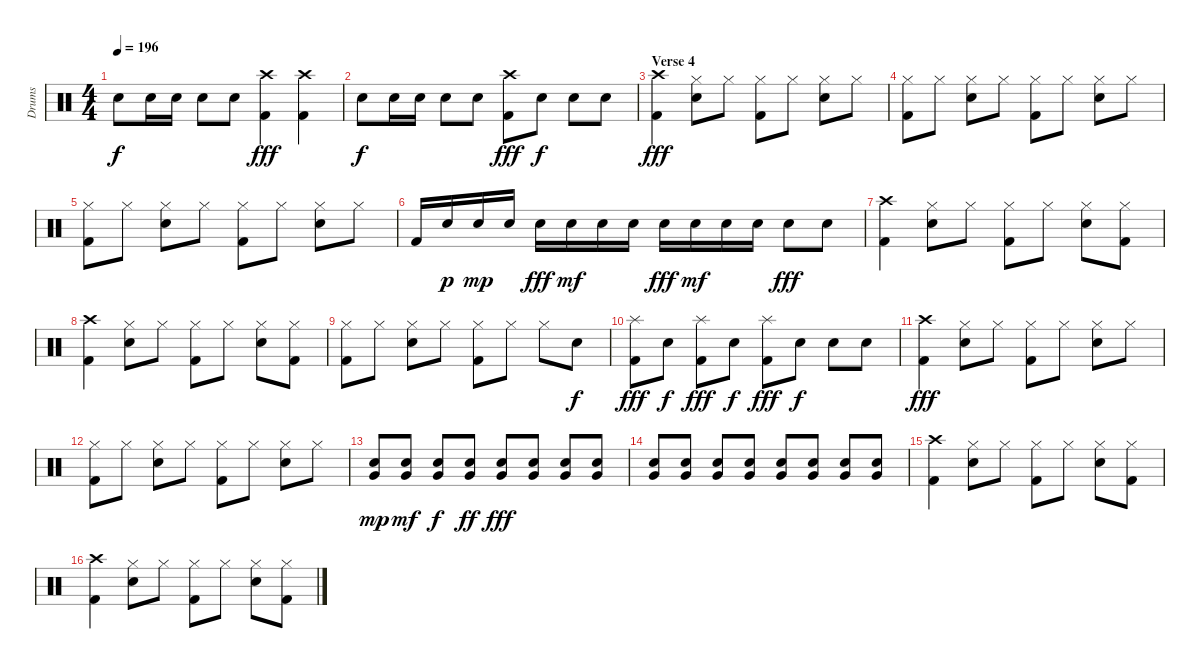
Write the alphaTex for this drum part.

\track ("Drums" "Drums") {instrument percussion}
\staff {score}
\articulation defaults
\ts (4 4)
\tempo 196
\clef neutral
\ks c "Snare (hit) 2".8{dy f} "Snare (hit) 2".16 "Snare (hit) 2".16 "Snare (hit) 2".8 "Snare (hit) 2".8
("Crash high (hit)" "Kick (hit) 2").4{dy fff} ("Crash high (hit)" "Kick (hit) 2").4 |
"Snare (hit) 2".8{dy f} "Snare (hit) 2".16 "Snare (hit) 2".16 "Snare (hit) 2".8 "Snare (hit) 2".8 ("Crash high (hit)" "Kick (hit) 2").8{dy fff} "Snare (hit) 2".8{dy f} "Snare (hit) 2".8 "Snare (hit) 2".8 |
\section ("" "Verse 4")
("Crash high (hit)" "Kick (hit) 2").4{dy fff} ("Hi-Hat (closed)" "Snare (hit) 2").8 "Hi-Hat (closed)".8 ("Hi-Hat (closed)" "Kick (hit) 2").8 "Hi-Hat (closed)".8 ("Hi-Hat (closed)" "Snare (hit) 2").8 "Hi-Hat (closed)".8 |
("Hi-Hat (closed)" "Kick (hit) 2").8 "Hi-Hat (closed)".8 ("Hi-Hat (closed)" "Snare (hit) 2").8 "Hi-Hat (closed)".8 ("Hi-Hat (closed)" "Kick (hit) 2").8 "Hi-Hat (closed)".8 ("Hi-Hat (closed)" "Snare (hit) 2").8 "Hi-Hat (closed)".8 |
("Hi-Hat (closed)" "Kick (hit) 2").8 "Hi-Hat (closed)".8 ("Hi-Hat (closed)" "Snare (hit) 2").8 "Hi-Hat (closed)".8 ("Hi-Hat (closed)" "Kick (hit) 2").8 "Hi-Hat (closed)".8 ("Hi-Hat (closed)" "Snare (hit) 2").8 "Hi-Hat (closed)".8 |
"Kick (hit) 2".16 "Snare (hit) 2".16{dy p} "Snare (hit) 2".16{dy mp} "Snare (hit) 2".16 "Snare (hit) 2".16{dy fff} "Snare (hit) 2".16{dy mf} "Snare (hit) 2".16 "Snare (hit) 2".16 "Snare (hit) 2".16{dy fff} "Snare (hit) 2".16{dy mf} "Snare (hit) 2".16 "Snare (hit) 2".16 "Snare (hit) 2".8{dy fff} "Snare (hit) 2".8 |
("Crash high (hit)" "Kick (hit) 2").4 ("Hi-Hat (closed)" "Snare (hit) 2").8 "Hi-Hat (closed)".8 ("Hi-Hat (closed)" "Kick (hit) 2").8 "Hi-Hat (closed)".8 ("Hi-Hat (closed)" "Snare (hit) 2").8 ("Hi-Hat (closed)" "Kick (hit) 2").8 |
("Crash high (hit)" "Kick (hit) 2").4 ("Hi-Hat (closed)" "Snare (hit) 2").8 "Hi-Hat (closed)".8 ("Hi-Hat (closed)" "Kick (hit) 2").8 "Hi-Hat (closed)".8 ("Hi-Hat (closed)" "Snare (hit) 2").8 ("Hi-Hat (closed)" "Kick (hit) 2").8 |
("Hi-Hat (closed)" "Kick (hit) 2").8 "Hi-Hat (closed)".8 ("Hi-Hat (closed)" "Snare (hit) 2").8 "Hi-Hat (closed)".8 ("Hi-Hat (closed)" "Kick (hit) 2").8 "Hi-Hat (closed)".8 "Hi-Hat (closed)".8 "Snare (hit) 2".8{dy f} |
("Splash (hit)" "Kick (hit) 2").8{dy fff} "Snare (hit) 2".8{dy f} ("Splash (hit)" "Kick (hit) 2").8{dy fff} "Snare (hit) 2".8{dy f} ("Splash (hit)" "Kick (hit) 2").8{dy fff} "Snare (hit) 2".8{dy f} "Snare (hit) 2".8 "Snare (hit) 2".8 |
("Crash high (hit)" "Kick (hit) 2").4{dy fff} ("Hi-Hat (closed)" "Snare (hit) 2").8 "Hi-Hat (closed)".8 ("Hi-Hat (closed)" "Kick (hit) 2").8 "Hi-Hat (closed)".8 ("Hi-Hat (closed)" "Snare (hit) 2").8 "Hi-Hat (closed)".8 |
("Hi-Hat (closed)" "Kick (hit) 2").8 "Hi-Hat (closed)".8 ("Hi-Hat (closed)" "Snare (hit) 2").8 "Hi-Hat (closed)".8 ("Hi-Hat (closed)" "Kick (hit) 2").8 "Hi-Hat (closed)".8 ("Hi-Hat (closed)" "Snare (hit) 2").8 "Hi-Hat (closed)".8 |
("Very Low Tom (hit)" "Snare (hit) 2").8{dy mp} ("Very Low Tom (hit)" "Snare (hit) 2").8{dy mf} ("Very Low Tom (hit)" "Snare (hit) 2").8{dy f} ("Very Low Tom (hit)" "Snare (hit) 2").8{dy ff} ("Very Low Tom (hit)" "Snare (hit) 2").8{dy fff} ("Very Low Tom (hit)" "Snare (hit) 2").8 ("Very Low Tom (hit)" "Snare (hit) 2").8 ("Very Low Tom (hit)" "Snare (hit) 2").8 |
("Very Low Tom (hit)" "Snare (hit) 2").8 ("Very Low Tom (hit)" "Snare (hit) 2").8 ("Very Low Tom (hit)" "Snare (hit) 2").8 ("Very Low Tom (hit)" "Snare (hit) 2").8 ("Very Low Tom (hit)" "Snare (hit) 2").8 ("Very Low Tom (hit)" "Snare (hit) 2").8 ("Very Low Tom (hit)" "Snare (hit) 2").8 ("Very Low Tom (hit)" "Snare (hit) 2").8 |
("Crash high (hit)" "Kick (hit) 2").4 ("Hi-Hat (closed)" "Snare (hit) 2").8 "Hi-Hat (closed)".8 ("Hi-Hat (closed)" "Kick (hit) 2").8 "Hi-Hat (closed)".8 ("Hi-Hat (closed)" "Snare (hit) 2").8 ("Hi-Hat (closed)" "Kick (hit) 2").8 |
("Crash high (hit)" "Kick (hit) 2").4 ("Hi-Hat (closed)" "Snare (hit) 2").8 "Hi-Hat (closed)".8 ("Hi-Hat (closed)" "Kick (hit) 2").8 "Hi-Hat (closed)".8 ("Hi-Hat (closed)" "Snare (hit) 2").8 ("Hi-Hat (closed)" "Kick (hit) 2").8
